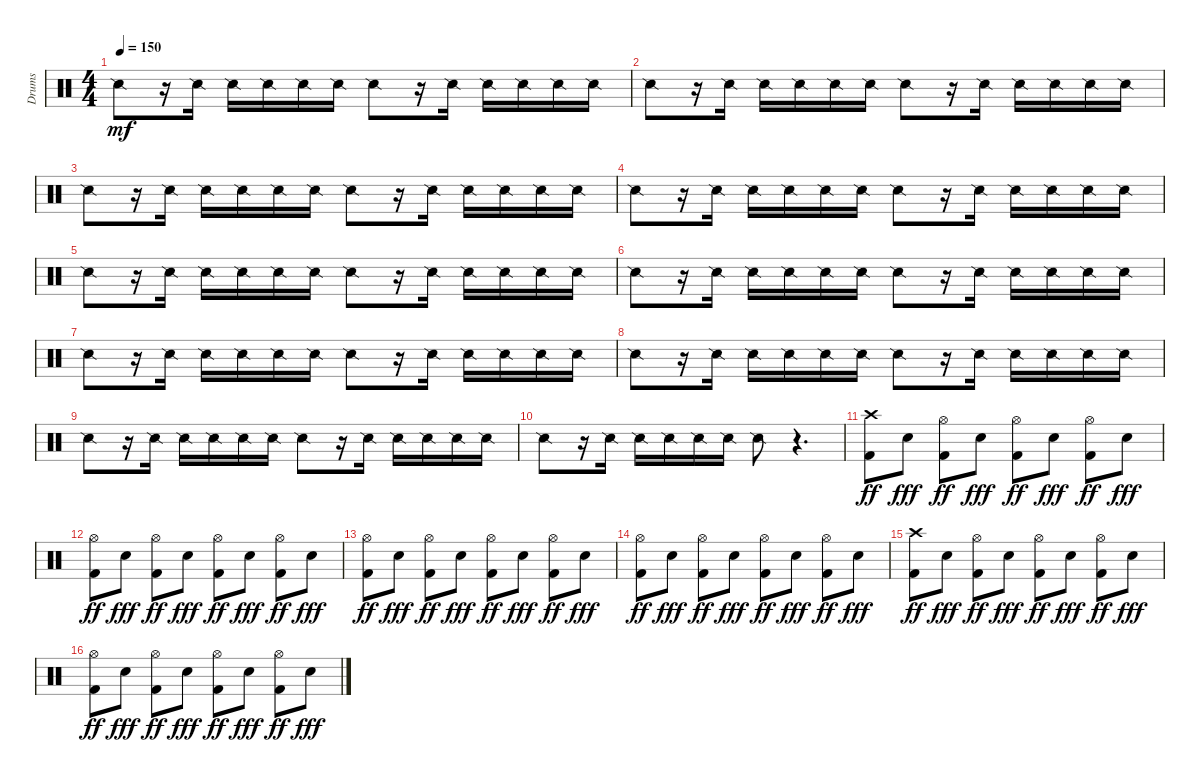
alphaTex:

\track ("Drums" "Drums") {instrument percussion}
\staff {score}
\articulation defaults
\ts (4 4)
\tempo 150
\clef neutral
\ks c "Snare (side stick) 2".8{dy mf}
r.16 "Snare (side stick) 2".16 "Snare (side stick) 2".16 "Snare (side stick) 2".16 "Snare (side stick) 2".16 "Snare (side stick) 2".16 "Snare (side stick) 2".8 r.16 "Snare (side stick) 2".16 "Snare (side stick) 2".16 "Snare (side stick) 2".16 "Snare (side stick) 2".16 "Snare (side stick) 2".16 |
"Snare (side stick) 2".8 r.16 "Snare (side stick) 2".16 "Snare (side stick) 2".16 "Snare (side stick) 2".16 "Snare (side stick) 2".16 "Snare (side stick) 2".16 "Snare (side stick) 2".8 r.16 "Snare (side stick) 2".16 "Snare (side stick) 2".16 "Snare (side stick) 2".16 "Snare (side stick) 2".16 "Snare (side stick) 2".16 |
"Snare (side stick) 2".8 r.16 "Snare (side stick) 2".16 "Snare (side stick) 2".16 "Snare (side stick) 2".16 "Snare (side stick) 2".16 "Snare (side stick) 2".16 "Snare (side stick) 2".8 r.16 "Snare (side stick) 2".16 "Snare (side stick) 2".16 "Snare (side stick) 2".16 "Snare (side stick) 2".16 "Snare (side stick) 2".16 |
"Snare (side stick) 2".8 r.16 "Snare (side stick) 2".16 "Snare (side stick) 2".16 "Snare (side stick) 2".16 "Snare (side stick) 2".16 "Snare (side stick) 2".16 "Snare (side stick) 2".8 r.16 "Snare (side stick) 2".16 "Snare (side stick) 2".16 "Snare (side stick) 2".16 "Snare (side stick) 2".16 "Snare (side stick) 2".16 |
"Snare (side stick) 2".8 r.16 "Snare (side stick) 2".16 "Snare (side stick) 2".16 "Snare (side stick) 2".16 "Snare (side stick) 2".16 "Snare (side stick) 2".16 "Snare (side stick) 2".8 r.16 "Snare (side stick) 2".16 "Snare (side stick) 2".16 "Snare (side stick) 2".16 "Snare (side stick) 2".16 "Snare (side stick) 2".16 |
"Snare (side stick) 2".8 r.16 "Snare (side stick) 2".16 "Snare (side stick) 2".16 "Snare (side stick) 2".16 "Snare (side stick) 2".16 "Snare (side stick) 2".16 "Snare (side stick) 2".8 r.16 "Snare (side stick) 2".16 "Snare (side stick) 2".16 "Snare (side stick) 2".16 "Snare (side stick) 2".16 "Snare (side stick) 2".16 |
"Snare (side stick) 2".8 r.16 "Snare (side stick) 2".16 "Snare (side stick) 2".16 "Snare (side stick) 2".16 "Snare (side stick) 2".16 "Snare (side stick) 2".16 "Snare (side stick) 2".8 r.16 "Snare (side stick) 2".16 "Snare (side stick) 2".16 "Snare (side stick) 2".16 "Snare (side stick) 2".16 "Snare (side stick) 2".16 |
"Snare (side stick) 2".8 r.16 "Snare (side stick) 2".16 "Snare (side stick) 2".16 "Snare (side stick) 2".16 "Snare (side stick) 2".16 "Snare (side stick) 2".16 "Snare (side stick) 2".8 r.16 "Snare (side stick) 2".16 "Snare (side stick) 2".16 "Snare (side stick) 2".16 "Snare (side stick) 2".16 "Snare (side stick) 2".16 |
"Snare (side stick) 2".8 r.16 "Snare (side stick) 2".16 "Snare (side stick) 2".16 "Snare (side stick) 2".16 "Snare (side stick) 2".16 "Snare (side stick) 2".16 "Snare (side stick) 2".8 r.16 "Snare (side stick) 2".16 "Snare (side stick) 2".16 "Snare (side stick) 2".16 "Snare (side stick) 2".16 "Snare (side stick) 2".16 |
"Snare (side stick) 2".8 r.16 "Snare (side stick) 2".16 "Snare (side stick) 2".16 "Snare (side stick) 2".16 "Snare (side stick) 2".16 "Snare (side stick) 2".16 "Snare (side stick) 2".8 r.4{d} |
("Crash high (hit)" "Kick (hit) 2").8{dy ff} "Snare (hit) 2".8{dy fff} ("Hi-Hat (open)" "Kick (hit) 2").8{dy ff} "Snare (hit) 2".8{dy fff} ("Hi-Hat (open)" "Kick (hit) 2").8{dy ff} "Snare (hit) 2".8{dy fff} ("Hi-Hat (open)" "Kick (hit) 2").8{dy ff} "Snare (hit) 2".8{dy fff} |
("Hi-Hat (open)" "Kick (hit) 2").8{dy ff} "Snare (hit) 2".8{dy fff} ("Hi-Hat (open)" "Kick (hit) 2").8{dy ff} "Snare (hit) 2".8{dy fff} ("Hi-Hat (open)" "Kick (hit) 2").8{dy ff} "Snare (hit) 2".8{dy fff} ("Hi-Hat (open)" "Kick (hit) 2").8{dy ff} "Snare (hit) 2".8{dy fff} |
("Hi-Hat (open)" "Kick (hit) 2").8{dy ff} "Snare (hit) 2".8{dy fff} ("Hi-Hat (open)" "Kick (hit) 2").8{dy ff} "Snare (hit) 2".8{dy fff} ("Hi-Hat (open)" "Kick (hit) 2").8{dy ff} "Snare (hit) 2".8{dy fff} ("Hi-Hat (open)" "Kick (hit) 2").8{dy ff} "Snare (hit) 2".8{dy fff} |
("Hi-Hat (open)" "Kick (hit) 2").8{dy ff} "Snare (hit) 2".8{dy fff} ("Hi-Hat (open)" "Kick (hit) 2").8{dy ff} "Snare (hit) 2".8{dy fff} ("Hi-Hat (open)" "Kick (hit) 2").8{dy ff} "Snare (hit) 2".8{dy fff} ("Hi-Hat (open)" "Kick (hit) 2").8{dy ff} "Snare (hit) 2".8{dy fff} |
("Crash high (hit)" "Kick (hit) 2").8{dy ff} "Snare (hit) 2".8{dy fff} ("Hi-Hat (open)" "Kick (hit) 2").8{dy ff} "Snare (hit) 2".8{dy fff} ("Hi-Hat (open)" "Kick (hit) 2").8{dy ff} "Snare (hit) 2".8{dy fff} ("Hi-Hat (open)" "Kick (hit) 2").8{dy ff} "Snare (hit) 2".8{dy fff} |
("Hi-Hat (open)" "Kick (hit) 2").8{dy ff} "Snare (hit) 2".8{dy fff} ("Hi-Hat (open)" "Kick (hit) 2").8{dy ff} "Snare (hit) 2".8{dy fff} ("Hi-Hat (open)" "Kick (hit) 2").8{dy ff} "Snare (hit) 2".8{dy fff} ("Hi-Hat (open)" "Kick (hit) 2").8{dy ff} "Snare (hit) 2".8{dy fff}
